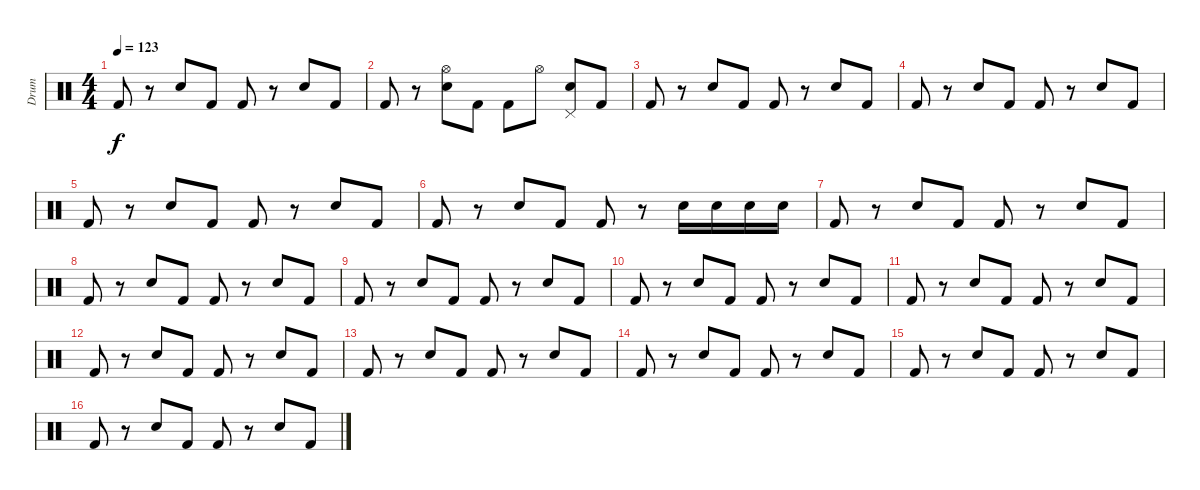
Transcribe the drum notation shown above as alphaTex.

\track ("Drum" "Drum") {instrument percussion}
\staff {score}
\articulation defaults
\ts (4 4)
\tempo 123
\clef neutral
\ks c "Kick (hit) 2".8{dy f}
r.8 "Electric Snare (hit)".8 "Kick (hit) 2".8 "Kick (hit) 2".8 r.8 "Electric Snare (hit)".8 "Kick (hit) 2".8 |
"Kick (hit) 2".8 r.8 ("Hi-Hat (open)" "Electric Snare (hit)").8 "Kick (hit) 2".8 "Kick (hit) 2".8 "Hi-Hat (open)".8 ("Pedal Hi-Hat (hit)" "Electric Snare (hit)").8 "Kick (hit) 2".8 |
"Kick (hit) 2".8 r.8 "Electric Snare (hit)".8 "Kick (hit) 2".8 "Kick (hit) 2".8 r.8 "Electric Snare (hit)".8 "Kick (hit) 2".8 |
"Kick (hit) 2".8 r.8 "Electric Snare (hit)".8 "Kick (hit) 2".8 "Kick (hit) 2".8 r.8 "Electric Snare (hit)".8 "Kick (hit) 2".8 |
"Kick (hit) 2".8 r.8 "Electric Snare (hit)".8 "Kick (hit) 2".8 "Kick (hit) 2".8 r.8 "Electric Snare (hit)".8 "Kick (hit) 2".8 |
"Kick (hit) 2".8 r.8 "Electric Snare (hit)".8 "Kick (hit) 2".8 "Kick (hit) 2".8 r.8 "Electric Snare (hit)".16 "Electric Snare (hit)".16 "Electric Snare (hit)".16 "Electric Snare (hit)".16 |
"Kick (hit) 2".8 r.8 "Electric Snare (hit)".8 "Kick (hit) 2".8 "Kick (hit) 2".8 r.8 "Electric Snare (hit)".8 "Kick (hit) 2".8 |
"Kick (hit) 2".8 r.8 "Electric Snare (hit)".8 "Kick (hit) 2".8 "Kick (hit) 2".8 r.8 "Electric Snare (hit)".8 "Kick (hit) 2".8 |
"Kick (hit) 2".8 r.8 "Electric Snare (hit)".8 "Kick (hit) 2".8 "Kick (hit) 2".8 r.8 "Electric Snare (hit)".8 "Kick (hit) 2".8 |
"Kick (hit) 2".8 r.8 "Electric Snare (hit)".8 "Kick (hit) 2".8 "Kick (hit) 2".8 r.8 "Electric Snare (hit)".8 "Kick (hit) 2".8 |
"Kick (hit) 2".8 r.8 "Electric Snare (hit)".8 "Kick (hit) 2".8 "Kick (hit) 2".8 r.8 "Electric Snare (hit)".8 "Kick (hit) 2".8 |
"Kick (hit) 2".8 r.8 "Electric Snare (hit)".8 "Kick (hit) 2".8 "Kick (hit) 2".8 r.8 "Electric Snare (hit)".8 "Kick (hit) 2".8 |
"Kick (hit) 2".8 r.8 "Electric Snare (hit)".8 "Kick (hit) 2".8 "Kick (hit) 2".8 r.8 "Electric Snare (hit)".8 "Kick (hit) 2".8 |
"Kick (hit) 2".8 r.8 "Electric Snare (hit)".8 "Kick (hit) 2".8 "Kick (hit) 2".8 r.8 "Electric Snare (hit)".8 "Kick (hit) 2".8 |
"Kick (hit) 2".8 r.8 "Electric Snare (hit)".8 "Kick (hit) 2".8 "Kick (hit) 2".8 r.8 "Electric Snare (hit)".8 "Kick (hit) 2".8 |
"Kick (hit) 2".8 r.8 "Electric Snare (hit)".8 "Kick (hit) 2".8 "Kick (hit) 2".8 r.8 "Electric Snare (hit)".8 "Kick (hit) 2".8
